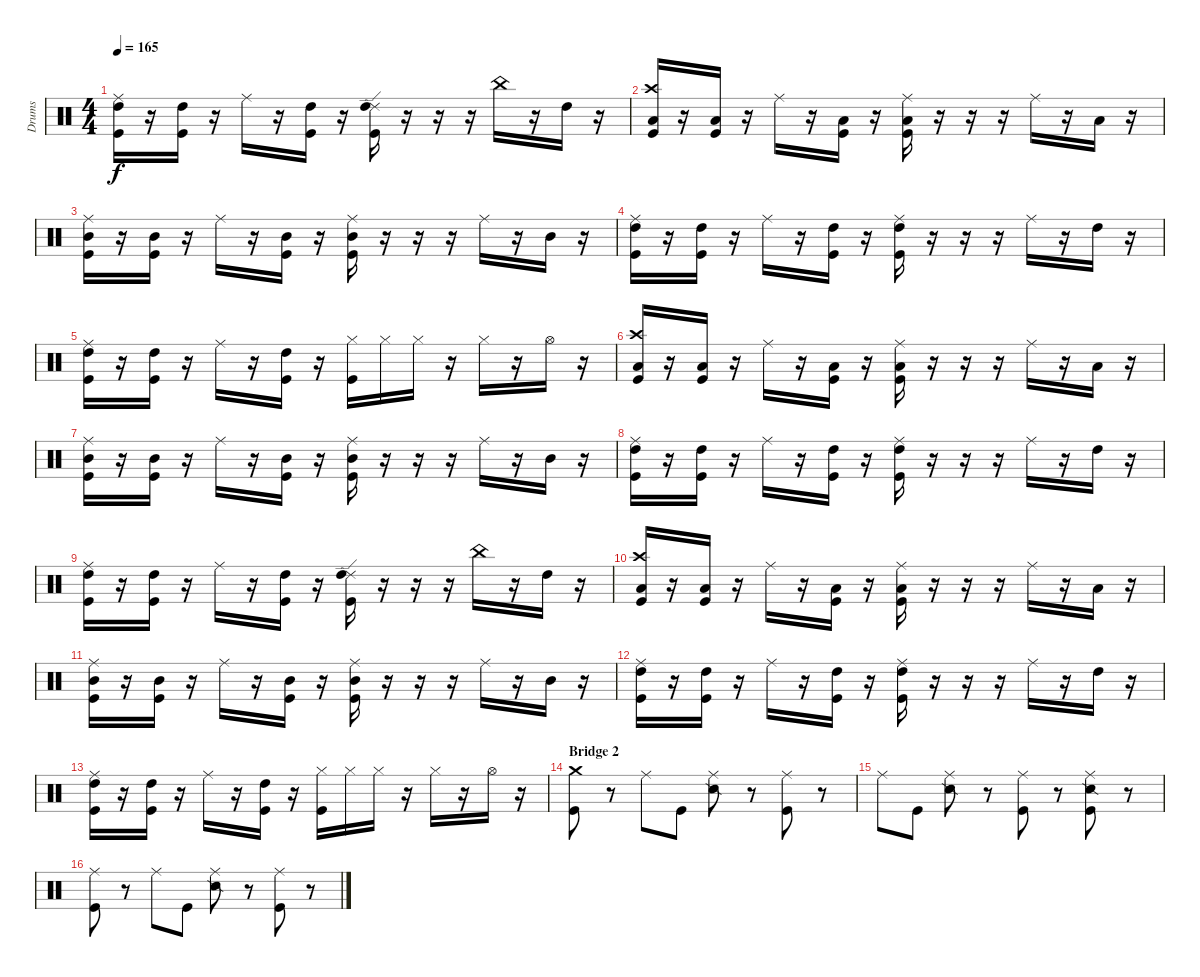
\track ("Drums" "Drums") {instrument percussion}
\staff {score}
\articulation defaults
\ts (4 4)
\tempo 165
\clef neutral
\ks c
("Ride (middle)" "High Tom (hit)" "Kick (hit)").16{dy f} r.16 ("High Tom (hit)" "Kick (hit)").16 r.16 "Ride (middle)".16 r.16 ("High Tom (hit)" "Kick (hit)").16 r.16 ("Ride (edge) 2" "High Tom (hit)" "Kick (hit)").16 r.16 r.16 r.16 "China (hit)".16 r.16 "High Tom (hit)".16 r.16 |
("Crash high (hit)" "Low Tom (hit)" "Kick (hit)").16 r.16 ("Low Tom (hit)" "Kick (hit)").16 r.16 "Ride (middle)".16 r.16 ("Low Tom (hit)" "Kick (hit)").16 r.16 ("Ride (middle)" "Low Tom (hit)" "Kick (hit)").16 r.16 r.16 r.16 "Ride (middle)".16 r.16 "Low Tom (hit)".16 r.16 |
("Ride (middle)" "Mid Tom (hit)" "Kick (hit)").16 r.16 ("Mid Tom (hit)" "Kick (hit)").16 r.16 "Ride (middle)".16 r.16 ("Mid Tom (hit)" "Kick (hit)").16 r.16 ("Ride (middle)" "Mid Tom (hit)" "Kick (hit)").16 r.16 r.16 r.16 "Ride (middle)".16 r.16 "Mid Tom (hit)".16 r.16 |
("Ride (middle)" "High Tom (hit)" "Kick (hit)").16 r.16 ("High Tom (hit)" "Kick (hit)").16 r.16 "Ride (middle)".16 r.16 ("High Tom (hit)" "Kick (hit)").16 r.16 ("Ride (middle)" "High Tom (hit)" "Kick (hit)").16 r.16 r.16 r.16 "Ride (middle)".16 r.16 "High Tom (hit)".16 r.16 |
("Ride (middle)" "High Tom (hit)" "Kick (hit)").16 r.16 ("High Tom (hit)" "Kick (hit)").16 r.16 "Ride (middle)".16 r.16 ("High Tom (hit)" "Kick (hit)").16 r.16 ("Hi-Hat (closed)" "Kick (hit)").16 "Hi-Hat (closed)".16 "Hi-Hat (closed)".16 r.16 "Hi-Hat (closed)".16 r.16 "Hi-Hat (open)".16 r.16 |
("Crash high (hit)" "Low Tom (hit)" "Kick (hit)").16 r.16 ("Low Tom (hit)" "Kick (hit)").16 r.16 "Ride (middle)".16 r.16 ("Low Tom (hit)" "Kick (hit)").16 r.16 ("Ride (middle)" "Low Tom (hit)" "Kick (hit)").16 r.16 r.16 r.16 "Ride (middle)".16 r.16 "Low Tom (hit)".16 r.16 |
("Ride (middle)" "Mid Tom (hit)" "Kick (hit)").16 r.16 ("Mid Tom (hit)" "Kick (hit)").16 r.16 "Ride (middle)".16 r.16 ("Mid Tom (hit)" "Kick (hit)").16 r.16 ("Ride (middle)" "Mid Tom (hit)" "Kick (hit)").16 r.16 r.16 r.16 "Ride (middle)".16 r.16 "Mid Tom (hit)".16 r.16 |
("Ride (middle)" "High Tom (hit)" "Kick (hit)").16 r.16 ("High Tom (hit)" "Kick (hit)").16 r.16 "Ride (middle)".16 r.16 ("High Tom (hit)" "Kick (hit)").16 r.16 ("Ride (middle)" "High Tom (hit)" "Kick (hit)").16 r.16 r.16 r.16 "Ride (middle)".16 r.16 "High Tom (hit)".16 r.16 |
("Ride (middle)" "High Tom (hit)" "Kick (hit)").16 r.16 ("High Tom (hit)" "Kick (hit)").16 r.16 "Ride (middle)".16 r.16 ("High Tom (hit)" "Kick (hit)").16 r.16 ("Ride (edge) 2" "High Tom (hit)" "Kick (hit)").16 r.16 r.16 r.16 "China (hit)".16 r.16 "High Tom (hit)".16 r.16 |
("Crash high (hit)" "Low Tom (hit)" "Kick (hit)").16 r.16 ("Low Tom (hit)" "Kick (hit)").16 r.16 "Ride (middle)".16 r.16 ("Low Tom (hit)" "Kick (hit)").16 r.16 ("Ride (middle)" "Low Tom (hit)" "Kick (hit)").16 r.16 r.16 r.16 "Ride (middle)".16 r.16 "Low Tom (hit)".16 r.16 |
("Ride (middle)" "Mid Tom (hit)" "Kick (hit)").16 r.16 ("Mid Tom (hit)" "Kick (hit)").16 r.16 "Ride (middle)".16 r.16 ("Mid Tom (hit)" "Kick (hit)").16 r.16 ("Ride (middle)" "Mid Tom (hit)" "Kick (hit)").16 r.16 r.16 r.16 "Ride (middle)".16 r.16 "Mid Tom (hit)".16 r.16 |
("Ride (middle)" "High Tom (hit)" "Kick (hit)").16 r.16 ("High Tom (hit)" "Kick (hit)").16 r.16 "Ride (middle)".16 r.16 ("High Tom (hit)" "Kick (hit)").16 r.16 ("Ride (middle)" "High Tom (hit)" "Kick (hit)").16 r.16 r.16 r.16 "Ride (middle)".16 r.16 "High Tom (hit)".16 r.16 |
("Ride (middle)" "High Tom (hit)" "Kick (hit)").16 r.16 ("High Tom (hit)" "Kick (hit)").16 r.16 "Ride (middle)".16 r.16 ("High Tom (hit)" "Kick (hit)").16 r.16 ("Hi-Hat (closed)" "Kick (hit)").16 "Hi-Hat (closed)".16 "Hi-Hat (closed)".16 r.16 "Hi-Hat (closed)".16 r.16 "Hi-Hat (open)".16 r.16 |
\section ("" "Bridge 2")
("Crash medium (hit)" "Kick (hit)").8 r.8 "Ride (middle)".8 "Kick (hit)".8 ("Ride (middle)" "Snare (side stick) 2").8 r.8 ("Ride (middle)" "Kick (hit)").8 r.8 |
"Ride (middle)".8 "Kick (hit)".8 ("Ride (middle)" "Snare (side stick) 2").8 r.8 ("Ride (middle)" "Kick (hit)").8 r.8 ("Ride (middle)" "Snare (side stick) 2" "Kick (hit)").8 r.8 |
("Ride (middle)" "Kick (hit)").8 r.8 "Ride (middle)".8 "Kick (hit)".8 ("Ride (middle)" "Snare (side stick) 2").8 r.8 ("Ride (middle)" "Kick (hit)").8 r.8
